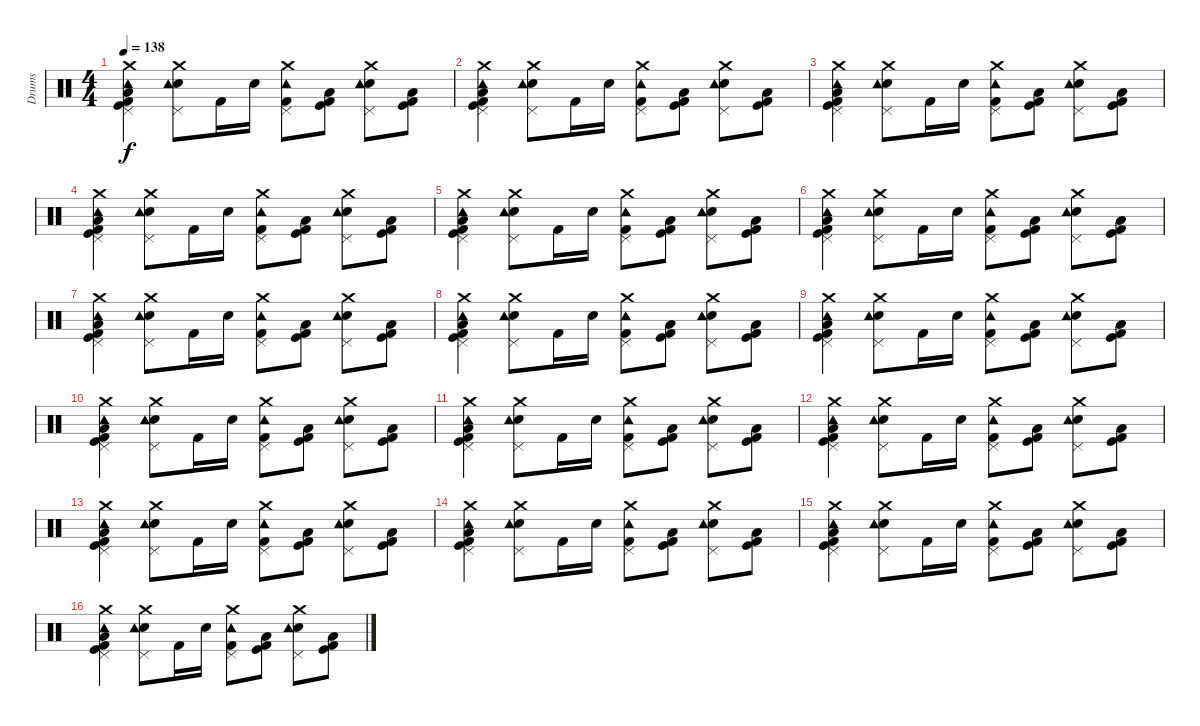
\track ("Drums" "Drums") {instrument percussion}
\staff {score}
\articulation defaults
\ts (4 4)
\tempo 138
\clef neutral
\ks c
("Crash medium (hit)" "Pedal Hi-Hat (hit)" "Kick (hit) 2" "Kick (hit)" "Low Floor Tom (hit)" "Tambourine (hit)").4{dy f} ("Crash medium (hit)" "Pedal Hi-Hat (hit)" "Electric Snare (hit)" "Tambourine (hit)").8 "Kick (hit) 2".16 "Electric Snare (hit)".16 ("Crash medium (hit)" "Pedal Hi-Hat (hit)" "Kick (hit) 2" "Tambourine (hit)").8 ("Kick (hit) 2" "Kick (hit)" "Low Floor Tom (hit)").8 ("Crash medium (hit)" "Pedal Hi-Hat (hit)" "Electric Snare (hit)" "Tambourine (hit)").8 ("Kick (hit) 2" "Low Floor Tom (hit)" "Kick (hit)").8 |
("Crash medium (hit)" "Pedal Hi-Hat (hit)" "Kick (hit) 2" "Kick (hit)" "Low Floor Tom (hit)" "Tambourine (hit)").4 ("Crash medium (hit)" "Pedal Hi-Hat (hit)" "Electric Snare (hit)" "Tambourine (hit)").8 "Kick (hit) 2".16 "Electric Snare (hit)".16 ("Crash medium (hit)" "Pedal Hi-Hat (hit)" "Kick (hit) 2" "Tambourine (hit)").8 ("Kick (hit) 2" "Kick (hit)" "Low Floor Tom (hit)").8 ("Crash medium (hit)" "Pedal Hi-Hat (hit)" "Electric Snare (hit)" "Tambourine (hit)").8 ("Kick (hit) 2" "Low Floor Tom (hit)" "Kick (hit)").8 |
("Crash medium (hit)" "Pedal Hi-Hat (hit)" "Kick (hit) 2" "Kick (hit)" "Low Floor Tom (hit)" "Tambourine (hit)").4 ("Crash medium (hit)" "Pedal Hi-Hat (hit)" "Electric Snare (hit)" "Tambourine (hit)").8 "Kick (hit) 2".16 "Electric Snare (hit)".16 ("Crash medium (hit)" "Pedal Hi-Hat (hit)" "Kick (hit) 2" "Tambourine (hit)").8 ("Kick (hit) 2" "Kick (hit)" "Low Floor Tom (hit)").8 ("Crash medium (hit)" "Pedal Hi-Hat (hit)" "Electric Snare (hit)" "Tambourine (hit)").8 ("Kick (hit) 2" "Low Floor Tom (hit)" "Kick (hit)").8 |
("Crash medium (hit)" "Pedal Hi-Hat (hit)" "Kick (hit) 2" "Kick (hit)" "Low Floor Tom (hit)" "Tambourine (hit)").4 ("Crash medium (hit)" "Pedal Hi-Hat (hit)" "Electric Snare (hit)" "Tambourine (hit)").8 "Kick (hit) 2".16 "Electric Snare (hit)".16 ("Crash medium (hit)" "Pedal Hi-Hat (hit)" "Kick (hit) 2" "Tambourine (hit)").8 ("Kick (hit) 2" "Kick (hit)" "Low Floor Tom (hit)").8 ("Crash medium (hit)" "Pedal Hi-Hat (hit)" "Electric Snare (hit)" "Tambourine (hit)").8 ("Kick (hit) 2" "Low Floor Tom (hit)" "Kick (hit)").8 |
("Crash medium (hit)" "Pedal Hi-Hat (hit)" "Kick (hit) 2" "Kick (hit)" "Low Floor Tom (hit)" "Tambourine (hit)").4 ("Crash medium (hit)" "Pedal Hi-Hat (hit)" "Electric Snare (hit)" "Tambourine (hit)").8 "Kick (hit) 2".16 "Electric Snare (hit)".16 ("Crash medium (hit)" "Pedal Hi-Hat (hit)" "Kick (hit) 2" "Tambourine (hit)").8 ("Kick (hit) 2" "Kick (hit)" "Low Floor Tom (hit)").8 ("Crash medium (hit)" "Pedal Hi-Hat (hit)" "Electric Snare (hit)" "Tambourine (hit)").8 ("Kick (hit) 2" "Low Floor Tom (hit)" "Kick (hit)").8 |
("Crash medium (hit)" "Pedal Hi-Hat (hit)" "Kick (hit) 2" "Kick (hit)" "Low Floor Tom (hit)" "Tambourine (hit)").4 ("Crash medium (hit)" "Pedal Hi-Hat (hit)" "Electric Snare (hit)" "Tambourine (hit)").8 "Kick (hit) 2".16 "Electric Snare (hit)".16 ("Crash medium (hit)" "Pedal Hi-Hat (hit)" "Kick (hit) 2" "Tambourine (hit)").8 ("Kick (hit) 2" "Kick (hit)" "Low Floor Tom (hit)").8 ("Crash medium (hit)" "Pedal Hi-Hat (hit)" "Electric Snare (hit)" "Tambourine (hit)").8 ("Kick (hit) 2" "Low Floor Tom (hit)" "Kick (hit)").8 |
("Crash medium (hit)" "Pedal Hi-Hat (hit)" "Kick (hit) 2" "Kick (hit)" "Low Floor Tom (hit)" "Tambourine (hit)").4 ("Crash medium (hit)" "Pedal Hi-Hat (hit)" "Electric Snare (hit)" "Tambourine (hit)").8 "Kick (hit) 2".16 "Electric Snare (hit)".16 ("Crash medium (hit)" "Pedal Hi-Hat (hit)" "Kick (hit) 2" "Tambourine (hit)").8 ("Kick (hit) 2" "Kick (hit)" "Low Floor Tom (hit)").8 ("Crash medium (hit)" "Pedal Hi-Hat (hit)" "Electric Snare (hit)" "Tambourine (hit)").8 ("Kick (hit) 2" "Low Floor Tom (hit)" "Kick (hit)").8 |
("Crash medium (hit)" "Pedal Hi-Hat (hit)" "Kick (hit) 2" "Kick (hit)" "Low Floor Tom (hit)" "Tambourine (hit)").4 ("Crash medium (hit)" "Pedal Hi-Hat (hit)" "Electric Snare (hit)" "Tambourine (hit)").8 "Kick (hit) 2".16 "Electric Snare (hit)".16 ("Crash medium (hit)" "Pedal Hi-Hat (hit)" "Kick (hit) 2" "Tambourine (hit)").8 ("Kick (hit) 2" "Kick (hit)" "Low Floor Tom (hit)").8 ("Crash medium (hit)" "Pedal Hi-Hat (hit)" "Electric Snare (hit)" "Tambourine (hit)").8 ("Kick (hit) 2" "Low Floor Tom (hit)" "Kick (hit)").8 |
("Crash medium (hit)" "Pedal Hi-Hat (hit)" "Kick (hit) 2" "Kick (hit)" "Low Floor Tom (hit)" "Tambourine (hit)").4 ("Crash medium (hit)" "Pedal Hi-Hat (hit)" "Electric Snare (hit)" "Tambourine (hit)").8 "Kick (hit) 2".16 "Electric Snare (hit)".16 ("Crash medium (hit)" "Pedal Hi-Hat (hit)" "Kick (hit) 2" "Tambourine (hit)").8 ("Kick (hit) 2" "Kick (hit)" "Low Floor Tom (hit)").8 ("Crash medium (hit)" "Pedal Hi-Hat (hit)" "Electric Snare (hit)" "Tambourine (hit)").8 ("Kick (hit) 2" "Low Floor Tom (hit)" "Kick (hit)").8 |
("Crash medium (hit)" "Pedal Hi-Hat (hit)" "Kick (hit) 2" "Kick (hit)" "Low Floor Tom (hit)" "Tambourine (hit)").4 ("Crash medium (hit)" "Pedal Hi-Hat (hit)" "Electric Snare (hit)" "Tambourine (hit)").8 "Kick (hit) 2".16 "Electric Snare (hit)".16 ("Crash medium (hit)" "Pedal Hi-Hat (hit)" "Kick (hit) 2" "Tambourine (hit)").8 ("Kick (hit) 2" "Kick (hit)" "Low Floor Tom (hit)").8 ("Crash medium (hit)" "Pedal Hi-Hat (hit)" "Electric Snare (hit)" "Tambourine (hit)").8 ("Kick (hit) 2" "Low Floor Tom (hit)" "Kick (hit)").8 |
("Crash medium (hit)" "Pedal Hi-Hat (hit)" "Kick (hit) 2" "Kick (hit)" "Low Floor Tom (hit)" "Tambourine (hit)").4 ("Crash medium (hit)" "Pedal Hi-Hat (hit)" "Electric Snare (hit)" "Tambourine (hit)").8 "Kick (hit) 2".16 "Electric Snare (hit)".16 ("Crash medium (hit)" "Pedal Hi-Hat (hit)" "Kick (hit) 2" "Tambourine (hit)").8 ("Kick (hit) 2" "Kick (hit)" "Low Floor Tom (hit)").8 ("Crash medium (hit)" "Pedal Hi-Hat (hit)" "Electric Snare (hit)" "Tambourine (hit)").8 ("Kick (hit) 2" "Low Floor Tom (hit)" "Kick (hit)").8 |
("Crash medium (hit)" "Pedal Hi-Hat (hit)" "Kick (hit) 2" "Kick (hit)" "Low Floor Tom (hit)" "Tambourine (hit)").4 ("Crash medium (hit)" "Pedal Hi-Hat (hit)" "Electric Snare (hit)" "Tambourine (hit)").8 "Kick (hit) 2".16 "Electric Snare (hit)".16 ("Crash medium (hit)" "Pedal Hi-Hat (hit)" "Kick (hit) 2" "Tambourine (hit)").8 ("Kick (hit) 2" "Kick (hit)" "Low Floor Tom (hit)").8 ("Crash medium (hit)" "Pedal Hi-Hat (hit)" "Electric Snare (hit)" "Tambourine (hit)").8 ("Kick (hit) 2" "Low Floor Tom (hit)" "Kick (hit)").8 |
("Crash medium (hit)" "Pedal Hi-Hat (hit)" "Kick (hit) 2" "Kick (hit)" "Low Floor Tom (hit)" "Tambourine (hit)").4 ("Crash medium (hit)" "Pedal Hi-Hat (hit)" "Electric Snare (hit)" "Tambourine (hit)").8 "Kick (hit) 2".16 "Electric Snare (hit)".16 ("Crash medium (hit)" "Pedal Hi-Hat (hit)" "Kick (hit) 2" "Tambourine (hit)").8 ("Kick (hit) 2" "Kick (hit)" "Low Floor Tom (hit)").8 ("Crash medium (hit)" "Pedal Hi-Hat (hit)" "Electric Snare (hit)" "Tambourine (hit)").8 ("Kick (hit) 2" "Low Floor Tom (hit)" "Kick (hit)").8 |
("Crash medium (hit)" "Pedal Hi-Hat (hit)" "Kick (hit) 2" "Kick (hit)" "Low Floor Tom (hit)" "Tambourine (hit)").4 ("Crash medium (hit)" "Pedal Hi-Hat (hit)" "Electric Snare (hit)" "Tambourine (hit)").8 "Kick (hit) 2".16 "Electric Snare (hit)".16 ("Crash medium (hit)" "Pedal Hi-Hat (hit)" "Kick (hit) 2" "Tambourine (hit)").8 ("Kick (hit) 2" "Kick (hit)" "Low Floor Tom (hit)").8 ("Crash medium (hit)" "Pedal Hi-Hat (hit)" "Electric Snare (hit)" "Tambourine (hit)").8 ("Kick (hit) 2" "Low Floor Tom (hit)" "Kick (hit)").8 |
("Crash medium (hit)" "Pedal Hi-Hat (hit)" "Kick (hit) 2" "Kick (hit)" "Low Floor Tom (hit)" "Tambourine (hit)").4 ("Crash medium (hit)" "Pedal Hi-Hat (hit)" "Electric Snare (hit)" "Tambourine (hit)").8 "Kick (hit) 2".16 "Electric Snare (hit)".16 ("Crash medium (hit)" "Pedal Hi-Hat (hit)" "Kick (hit) 2" "Tambourine (hit)").8 ("Kick (hit) 2" "Kick (hit)" "Low Floor Tom (hit)").8 ("Crash medium (hit)" "Pedal Hi-Hat (hit)" "Electric Snare (hit)" "Tambourine (hit)").8 ("Kick (hit) 2" "Low Floor Tom (hit)" "Kick (hit)").8 |
("Crash medium (hit)" "Pedal Hi-Hat (hit)" "Kick (hit) 2" "Kick (hit)" "Low Floor Tom (hit)" "Tambourine (hit)").4 ("Crash medium (hit)" "Pedal Hi-Hat (hit)" "Electric Snare (hit)" "Tambourine (hit)").8 "Kick (hit) 2".16 "Electric Snare (hit)".16 ("Crash medium (hit)" "Pedal Hi-Hat (hit)" "Kick (hit) 2" "Tambourine (hit)").8 ("Kick (hit) 2" "Kick (hit)" "Low Floor Tom (hit)").8 ("Crash medium (hit)" "Pedal Hi-Hat (hit)" "Electric Snare (hit)" "Tambourine (hit)").8 ("Kick (hit) 2" "Low Floor Tom (hit)" "Kick (hit)").8
